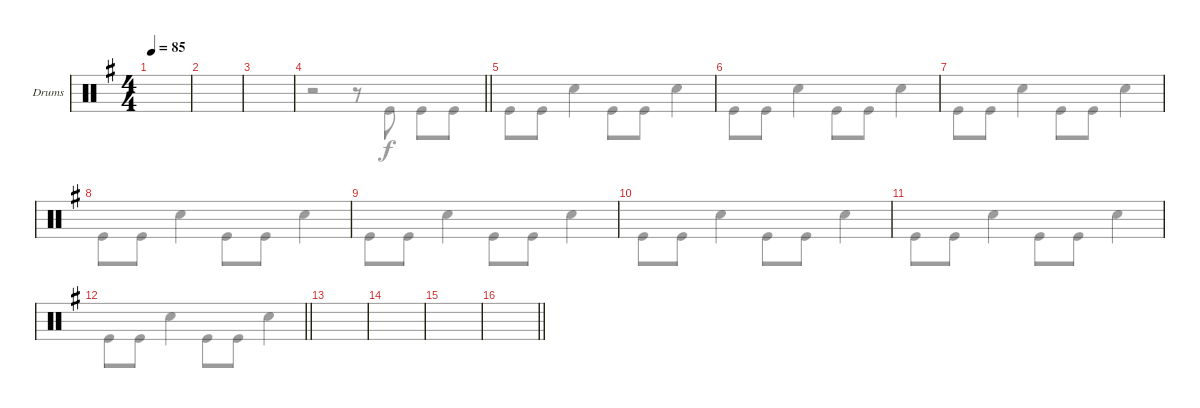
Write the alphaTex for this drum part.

\defaultSystemsLayout 4
\bracketExtendMode groupsimilarinstruments
\firstSystemTrackNameOrientation horizontal
\otherSystemsTrackNameOrientation horizontal
\track ("Drumkit" "Drums") {instrument percussion}
\staff {score}
\articulation defaults
\voice
\ts (4 4)
\scale
0.530686
\tempo 85
\accidentals auto
\clef neutral
\ottava regular
\simile none
\ks eminor
|
\scale
0.469314 |
\scale
0.530606 |
\scale
0.469855
\barLineRight lightlight
|
\scale
0.522857 |
\scale
0.477208 |
\scale
0.502135 |
\scale
0.498182 |
\scale
0.5 |
\scale
0.5 |
\scale
0.503565 |
\scale
0.496759
\barLineRight lightlight
|
\scale
0.5 |
\scale
0.5 |
\scale
0.511429 |
\scale
0.488604
\barLineRight lightlight
\voice
\clef neutral
\ottava regular
\simile none
\ks eminor
|
|
|
\barLineRight lightlight
r.2 r.8 "Kick (hit)".8 "Kick (hit)".8 "Kick (hit)".8 |
"Kick (hit)".8 "Kick (hit)".8 "Snare (hit) 2".4 "Kick (hit)".8 "Kick (hit)".8 "Snare (hit) 2".4 |
"Kick (hit)".8 "Kick (hit)".8 "Snare (hit) 2".4 "Kick (hit)".8 "Kick (hit)".8 "Snare (hit) 2".4 |
"Kick (hit)".8 "Kick (hit)".8 "Snare (hit) 2".4 "Kick (hit)".8 "Kick (hit)".8 "Snare (hit) 2".4 |
"Kick (hit)".8 "Kick (hit)".8 "Snare (hit) 2".4 "Kick (hit)".8 "Kick (hit)".8 "Snare (hit) 2".4 |
"Kick (hit)".8 "Kick (hit)".8 "Snare (hit) 2".4 "Kick (hit)".8 "Kick (hit)".8 "Snare (hit) 2".4 |
"Kick (hit)".8 "Kick (hit)".8 "Snare (hit) 2".4 "Kick (hit)".8 "Kick (hit)".8 "Snare (hit) 2".4 |
"Kick (hit)".8 "Kick (hit)".8 "Snare (hit) 2".4 "Kick (hit)".8 "Kick (hit)".8 "Snare (hit) 2".4 |
\barLineRight lightlight "Kick (hit)".8 "Kick (hit)".8 "Snare (hit) 2".4 "Kick (hit)".8 "Kick (hit)".8 "Snare (hit) 2".4
|
|
|
|
\barLineRight lightlight
